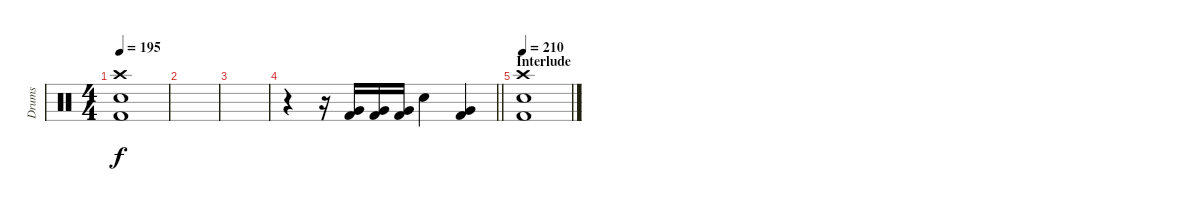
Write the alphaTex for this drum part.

\track ("Drums" "Drums") {instrument percussion}
\staff {score}
\articulation defaults
\ts (4 4)
\tempo 195
\clef neutral
\ks c
("Crash high (hit)" "Snare (hit) 2" "Kick (hit) 2").1{dy f} |
|
|
\barLineRight lightlight
r.4 r.16 ("Very Low Tom (hit)" "Kick (hit) 2").16 ("Very Low Tom (hit)" "Kick (hit) 2").16 ("Very Low Tom (hit)" "Kick (hit) 2").16 "Snare (hit) 2".4 ("Very Low Tom (hit)" "Kick (hit) 2").4 |
\section ("" "Interlude")
\tempo 210
("Crash high (hit)" "Snare (hit) 2" "Kick (hit) 2").1
